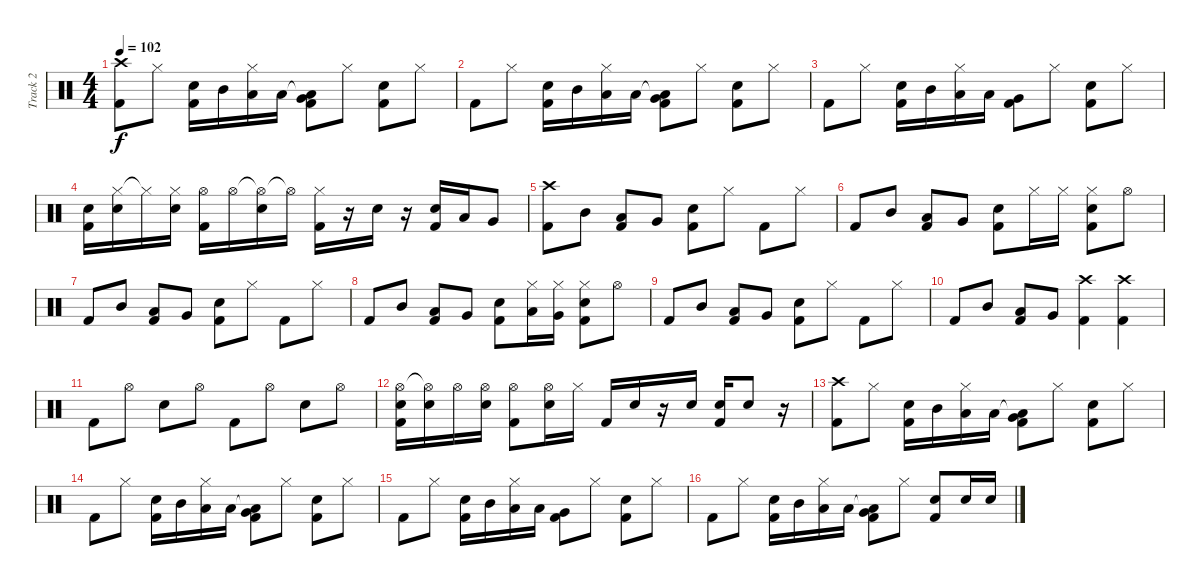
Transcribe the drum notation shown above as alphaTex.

\track ("Track 2" "Track 2") {instrument percussion}
\staff {score}
\articulation defaults
\ts (4 4)
\tempo 102
\clef neutral
\ks c
("Crash high (hit)" "Kick (hit) 2").8{dy f} "Hi-Hat (closed)".8 ("Electric Snare (hit)" "Kick (hit) 2").16 "Mid Tom (hit)".16 ("Hi-Hat (closed)" "Low Tom (hit)").16 "Low Tom (hit)".16 ("Low Tom (hit)"{t} "Very Low Tom (hit)" "Kick (hit) 2").8 "Hi-Hat (closed)".8 ("Electric Snare (hit)" "Kick (hit) 2").8 "Hi-Hat (closed)".8 |
"Kick (hit) 2".8 "Hi-Hat (closed)".8 ("Electric Snare (hit)" "Kick (hit) 2").16 "Mid Tom (hit)".16 ("Hi-Hat (closed)" "Low Tom (hit)").16 "Low Tom (hit)".16 ("Low Tom (hit)"{t} "Very Low Tom (hit)" "Kick (hit) 2").8 "Hi-Hat (closed)".8 ("Electric Snare (hit)" "Kick (hit) 2").8 "Hi-Hat (closed)".8 |
"Kick (hit) 2".8 "Hi-Hat (closed)".8 ("Electric Snare (hit)" "Kick (hit) 2").16 "Mid Tom (hit)".16 ("Hi-Hat (closed)" "Low Tom (hit)").16 "Low Tom (hit)".16 ("Very Low Tom (hit)" "Kick (hit) 2").8 "Hi-Hat (closed)".8 ("Electric Snare (hit)" "Kick (hit) 2").8 "Hi-Hat (closed)".8 |
("Electric Snare (hit)" "Kick (hit) 2").16 ("Hi-Hat (closed)" "Electric Snare (hit)").16 "Hi-Hat (closed)"{t}.16 ("Hi-Hat (closed)" "Electric Snare (hit)").16 ("Hi-Hat (open)" "Kick (hit) 2").16 "Hi-Hat (open)".16 ("Hi-Hat (open)"{t} "Electric Snare (hit)").16 "Hi-Hat (open)"{t}.16 ("Hi-Hat (closed)" "Kick (hit) 2").16 r.16 "Electric Snare (hit)".16 r.16 ("Electric Snare (hit)" "Kick (hit) 2").16 "Low Tom (hit)".16 "Very Low Tom (hit)".8 |
("Crash high (hit)" "Kick (hit) 2").8 "Mid Tom (hit)".8 ("Low Tom (hit)" "Kick (hit) 2").8 "Very Low Tom (hit)".8 ("Electric Snare (hit)" "Kick (hit) 2").8 "Hi-Hat (closed)".8 "Kick (hit) 2".8 "Hi-Hat (closed)".8 |
"Kick (hit) 2".8 "Mid Tom (hit)".8 ("Low Tom (hit)" "Kick (hit) 2").8 "Very Low Tom (hit)".8 ("Electric Snare (hit)" "Kick (hit) 2").8 "Hi-Hat (closed)".16 "Hi-Hat (closed)".16 ("Hi-Hat (closed)" "Electric Snare (hit)" "Kick (hit) 2").8 "Hi-Hat (open)".8 |
"Kick (hit) 2".8 "Mid Tom (hit)".8 ("Low Tom (hit)" "Kick (hit) 2").8 "Very Low Tom (hit)".8 ("Electric Snare (hit)" "Kick (hit) 2").8 "Hi-Hat (closed)".8 "Kick (hit) 2".8 "Hi-Hat (closed)".8 |
"Kick (hit) 2".8 "Mid Tom (hit)".8 ("Low Tom (hit)" "Kick (hit) 2").8 "Very Low Tom (hit)".8 ("Electric Snare (hit)" "Kick (hit) 2").8 ("Hi-Hat (closed)" "Low Tom (hit)").16 ("Hi-Hat (closed)" "Very Low Tom (hit)").16 ("Hi-Hat (closed)" "Electric Snare (hit)" "Kick (hit) 2").8 "Hi-Hat (open)".8 |
"Kick (hit) 2".8 "Mid Tom (hit)".8 ("Low Tom (hit)" "Kick (hit) 2").8 "Very Low Tom (hit)".8 ("Electric Snare (hit)" "Kick (hit) 2").8 "Hi-Hat (closed)".8 "Kick (hit) 2".8 "Hi-Hat (closed)".8 |
"Kick (hit) 2".8 "Mid Tom (hit)".8 ("Low Tom (hit)" "Kick (hit) 2").8 "Very Low Tom (hit)".8 ("Crash high (hit)" "Kick (hit) 2").4 ("Crash high (hit)" "Kick (hit) 2").4 |
"Kick (hit) 2".8 "Hi-Hat (open)".8 "Electric Snare (hit)".8 "Hi-Hat (open)".8 "Kick (hit) 2".8 "Hi-Hat (open)".8 "Electric Snare (hit)".8 "Hi-Hat (open)".8 |
("Hi-Hat (open)" "Electric Snare (hit)" "Kick (hit) 2").16 ("Hi-Hat (open)"{t} "Electric Snare (hit)").16 "Hi-Hat (open)".16 ("Hi-Hat (open)" "Electric Snare (hit)").16 ("Hi-Hat (open)" "Kick (hit) 2").8 ("Hi-Hat (open)" "Electric Snare (hit)").16 "Hi-Hat (closed)".16 "Kick (hit) 2".16 "Electric Snare (hit)".16 r.16 "Electric Snare (hit)".16 ("Electric Snare (hit)" "Kick (hit) 2").16 "Electric Snare (hit)".8 r.16 |
("Crash high (hit)" "Kick (hit) 2").8 "Hi-Hat (closed)".8 ("Electric Snare (hit)" "Kick (hit) 2").16 "Mid Tom (hit)".16 ("Hi-Hat (closed)" "Low Tom (hit)").16 "Low Tom (hit)".16 ("Low Tom (hit)"{t} "Very Low Tom (hit)" "Kick (hit) 2").8 "Hi-Hat (closed)".8 ("Electric Snare (hit)" "Kick (hit) 2").8 "Hi-Hat (closed)".8 |
"Kick (hit) 2".8 "Hi-Hat (closed)".8 ("Electric Snare (hit)" "Kick (hit) 2").16 "Mid Tom (hit)".16 ("Hi-Hat (closed)" "Low Tom (hit)").16 "Low Tom (hit)".16 ("Low Tom (hit)"{t} "Very Low Tom (hit)" "Kick (hit) 2").8 "Hi-Hat (closed)".8 ("Electric Snare (hit)" "Kick (hit) 2").8 "Hi-Hat (closed)".8 |
"Kick (hit) 2".8 "Hi-Hat (closed)".8 ("Electric Snare (hit)" "Kick (hit) 2").16 "Mid Tom (hit)".16 ("Hi-Hat (closed)" "Low Tom (hit)").16 "Low Tom (hit)".16 ("Very Low Tom (hit)" "Kick (hit) 2").8 "Hi-Hat (closed)".8 ("Electric Snare (hit)" "Kick (hit) 2").8 "Hi-Hat (closed)".8 |
"Kick (hit) 2".8 "Hi-Hat (closed)".8 ("Electric Snare (hit)" "Kick (hit) 2").16 "Mid Tom (hit)".16 ("Hi-Hat (closed)" "Low Tom (hit)").16 "Low Tom (hit)".16 ("Low Tom (hit)"{t} "Very Low Tom (hit)" "Kick (hit) 2").8 "Hi-Hat (closed)".8 ("Electric Snare (hit)" "Kick (hit) 2").8 "Electric Snare (hit)".16 "Electric Snare (hit)".16
